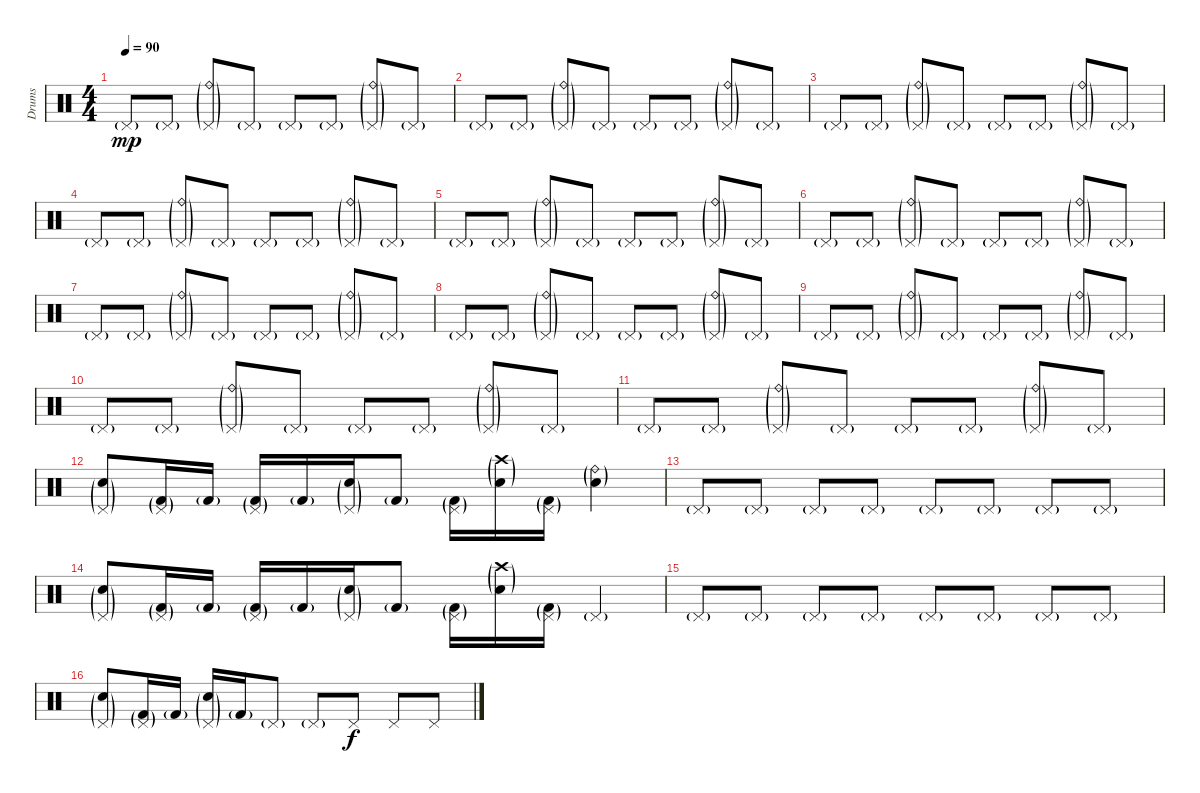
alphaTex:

\track ("Drums" "Drums") {instrument percussion}
\staff {score}
\articulation defaults
\ts (4 4)
\tempo 90
\clef neutral
\ks c "Pedal Hi-Hat (hit)"{g}.8{dy mp volume 10} "Pedal Hi-Hat (hit)"{g}.8
("Ride (bell)"{g} "Pedal Hi-Hat (hit)"{g}).8 "Pedal Hi-Hat (hit)"{g}.8 "Pedal Hi-Hat (hit)"{g}.8 "Pedal Hi-Hat (hit)"{g}.8 ("Ride (bell)"{g} "Pedal Hi-Hat (hit)"{g}).8 "Pedal Hi-Hat (hit)"{g}.8 |
"Pedal Hi-Hat (hit)"{g}.8 "Pedal Hi-Hat (hit)"{g}.8 ("Ride (bell)"{g} "Pedal Hi-Hat (hit)"{g}).8 "Pedal Hi-Hat (hit)"{g}.8 "Pedal Hi-Hat (hit)"{g}.8 "Pedal Hi-Hat (hit)"{g}.8 ("Ride (bell)"{g} "Pedal Hi-Hat (hit)"{g}).8 "Pedal Hi-Hat (hit)"{g}.8 |
"Pedal Hi-Hat (hit)"{g}.8 "Pedal Hi-Hat (hit)"{g}.8 ("Ride (bell)"{g} "Pedal Hi-Hat (hit)"{g}).8 "Pedal Hi-Hat (hit)"{g}.8 "Pedal Hi-Hat (hit)"{g}.8 "Pedal Hi-Hat (hit)"{g}.8 ("Ride (bell)"{g} "Pedal Hi-Hat (hit)"{g}).8 "Pedal Hi-Hat (hit)"{g}.8 |
"Pedal Hi-Hat (hit)"{g}.8 "Pedal Hi-Hat (hit)"{g}.8 ("Ride (bell)"{g} "Pedal Hi-Hat (hit)"{g}).8 "Pedal Hi-Hat (hit)"{g}.8 "Pedal Hi-Hat (hit)"{g}.8 "Pedal Hi-Hat (hit)"{g}.8 ("Ride (bell)"{g} "Pedal Hi-Hat (hit)"{g}).8 "Pedal Hi-Hat (hit)"{g}.8 |
"Pedal Hi-Hat (hit)"{g}.8 "Pedal Hi-Hat (hit)"{g}.8 ("Ride (bell)"{g} "Pedal Hi-Hat (hit)"{g}).8 "Pedal Hi-Hat (hit)"{g}.8 "Pedal Hi-Hat (hit)"{g}.8 "Pedal Hi-Hat (hit)"{g}.8 ("Ride (bell)"{g} "Pedal Hi-Hat (hit)"{g}).8 "Pedal Hi-Hat (hit)"{g}.8 |
"Pedal Hi-Hat (hit)"{g}.8 "Pedal Hi-Hat (hit)"{g}.8 ("Ride (bell)"{g} "Pedal Hi-Hat (hit)"{g}).8 "Pedal Hi-Hat (hit)"{g}.8 "Pedal Hi-Hat (hit)"{g}.8 "Pedal Hi-Hat (hit)"{g}.8 ("Ride (bell)"{g} "Pedal Hi-Hat (hit)"{g}).8 "Pedal Hi-Hat (hit)"{g}.8 |
"Pedal Hi-Hat (hit)"{g}.8 "Pedal Hi-Hat (hit)"{g}.8 ("Ride (bell)"{g} "Pedal Hi-Hat (hit)"{g}).8 "Pedal Hi-Hat (hit)"{g}.8 "Pedal Hi-Hat (hit)"{g}.8 "Pedal Hi-Hat (hit)"{g}.8 ("Ride (bell)"{g} "Pedal Hi-Hat (hit)"{g}).8 "Pedal Hi-Hat (hit)"{g}.8 |
"Pedal Hi-Hat (hit)"{g}.8 "Pedal Hi-Hat (hit)"{g}.8 ("Ride (bell)"{g} "Pedal Hi-Hat (hit)"{g}).8 "Pedal Hi-Hat (hit)"{g}.8 "Pedal Hi-Hat (hit)"{g}.8 "Pedal Hi-Hat (hit)"{g}.8 ("Ride (bell)"{g} "Pedal Hi-Hat (hit)"{g}).8 "Pedal Hi-Hat (hit)"{g}.8 |
"Pedal Hi-Hat (hit)"{g}.8 "Pedal Hi-Hat (hit)"{g}.8 ("Ride (bell)"{g} "Pedal Hi-Hat (hit)"{g}).8 "Pedal Hi-Hat (hit)"{g}.8 "Pedal Hi-Hat (hit)"{g}.8 "Pedal Hi-Hat (hit)"{g}.8 ("Ride (bell)"{g} "Pedal Hi-Hat (hit)"{g}).8 "Pedal Hi-Hat (hit)"{g}.8 |
"Pedal Hi-Hat (hit)"{g}.8 "Pedal Hi-Hat (hit)"{g}.8 ("Ride (bell)"{g} "Pedal Hi-Hat (hit)"{g}).8 "Pedal Hi-Hat (hit)"{g}.8 "Pedal Hi-Hat (hit)"{g}.8 "Pedal Hi-Hat (hit)"{g}.8 ("Ride (bell)"{g} "Pedal Hi-Hat (hit)"{g}).8 "Pedal Hi-Hat (hit)"{g}.8 |
"Pedal Hi-Hat (hit)"{g}.8 "Pedal Hi-Hat (hit)"{g}.8 ("Ride (bell)"{g} "Pedal Hi-Hat (hit)"{g}).8 "Pedal Hi-Hat (hit)"{g}.8 "Pedal Hi-Hat (hit)"{g}.8 "Pedal Hi-Hat (hit)"{g}.8 ("Ride (bell)"{g} "Pedal Hi-Hat (hit)"{g}).8 "Pedal Hi-Hat (hit)"{g}.8 |
("Pedal Hi-Hat (hit)"{g} "Electric Snare (hit)"{g}).8 ("Pedal Hi-Hat (hit)"{g} "Kick (hit) 2"{g}).16 "Kick (hit) 2"{g}.16 ("Pedal Hi-Hat (hit)"{g} "Kick (hit) 2"{g}).16 "Kick (hit) 2"{g}.16 ("Pedal Hi-Hat (hit)"{g} "Electric Snare (hit)"{g}).16 "Kick (hit) 2"{g}.8 ("Pedal Hi-Hat (hit)"{g} "Kick (hit) 2"{g}).16 ("Crash high (hit)"{g} "Electric Snare (hit)"{g}).16 ("Pedal Hi-Hat (hit)"{g} "Kick (hit) 2"{g}).16 ("Ride (bell)"{g} "Electric Snare (hit)"{g}).4 |
"Pedal Hi-Hat (hit)"{g}.8 "Pedal Hi-Hat (hit)"{g}.8 "Pedal Hi-Hat (hit)"{g}.8 "Pedal Hi-Hat (hit)"{g}.8 "Pedal Hi-Hat (hit)"{g}.8 "Pedal Hi-Hat (hit)"{g}.8 "Pedal Hi-Hat (hit)"{g}.8 "Pedal Hi-Hat (hit)"{g}.8 |
("Pedal Hi-Hat (hit)"{g} "Electric Snare (hit)"{g}).8 ("Pedal Hi-Hat (hit)"{g} "Kick (hit) 2"{g}).16 "Kick (hit) 2"{g}.16 ("Pedal Hi-Hat (hit)"{g} "Kick (hit) 2"{g}).16 "Kick (hit) 2"{g}.16 ("Pedal Hi-Hat (hit)"{g} "Electric Snare (hit)"{g}).16 "Kick (hit) 2"{g}.8 ("Pedal Hi-Hat (hit)"{g} "Kick (hit) 2"{g}).16 ("Crash high (hit)"{g} "Electric Snare (hit)"{g}).16 ("Pedal Hi-Hat (hit)"{g} "Kick (hit) 2"{g}).16 "Pedal Hi-Hat (hit)"{g}.4 |
"Pedal Hi-Hat (hit)"{g}.8 "Pedal Hi-Hat (hit)"{g}.8 "Pedal Hi-Hat (hit)"{g}.8 "Pedal Hi-Hat (hit)"{g}.8 "Pedal Hi-Hat (hit)"{g}.8 "Pedal Hi-Hat (hit)"{g}.8 "Pedal Hi-Hat (hit)"{g}.8 "Pedal Hi-Hat (hit)"{g}.8 |
("Pedal Hi-Hat (hit)"{g} "Electric Snare (hit)"{g}).8 ("Pedal Hi-Hat (hit)"{g} "Kick (hit) 2"{g}).16 "Kick (hit) 2"{g}.16 ("Pedal Hi-Hat (hit)"{g} "Electric Snare (hit)"{g}).16 "Kick (hit) 2"{g}.16 "Pedal Hi-Hat (hit)"{g}.8 "Pedal Hi-Hat (hit)"{g}.8 "Pedal Hi-Hat (hit)".8{dy f} "Pedal Hi-Hat (hit)".8{volume 16} "Pedal Hi-Hat (hit)".8
